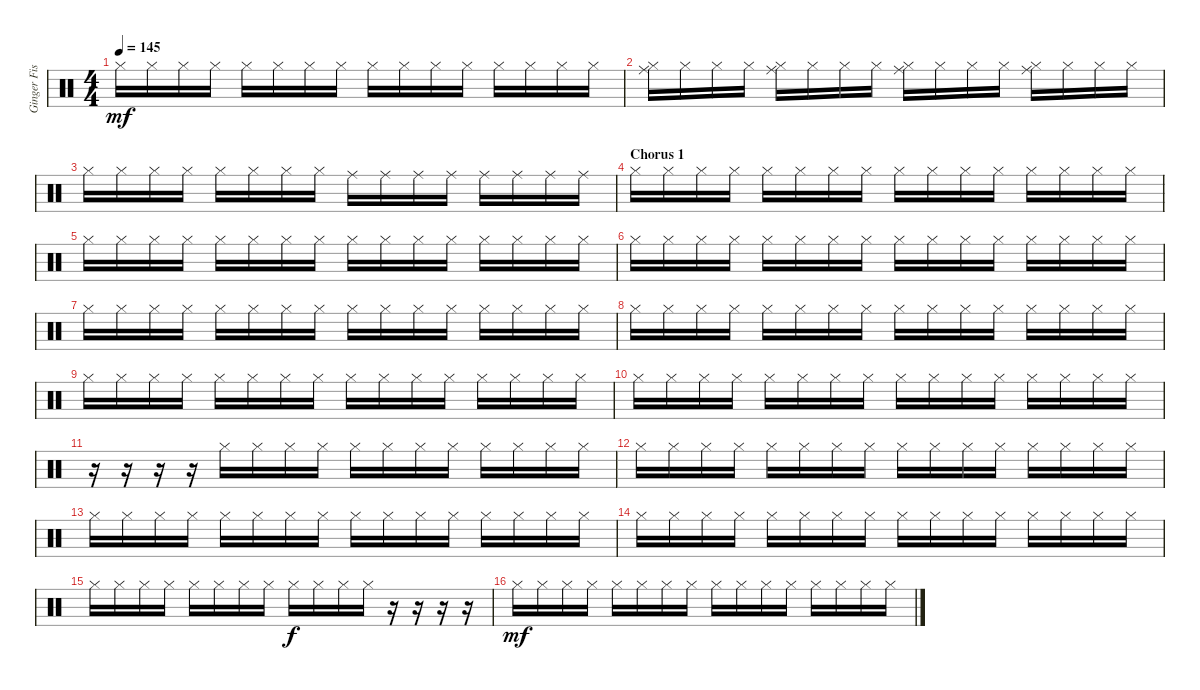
\track ("Ginger Fish [Aditional Drums]" "Ginger Fis") {instrument percussion}
\staff {score}
\articulation defaults
\ts (4 4)
\tempo 145
\clef neutral
\ks c "Hi-Hat (closed)".16{dy mf} "Hi-Hat (closed)".16 "Hi-Hat (closed)".16 "Hi-Hat (closed)".16 "Hi-Hat (closed)".16 "Hi-Hat (closed)".16 "Hi-Hat (closed)".16 "Hi-Hat (closed)".16 "Hi-Hat (closed)".16 "Hi-Hat (closed)".16 "Hi-Hat (closed)".16 "Hi-Hat (closed)".16 "Hi-Hat (closed)".16 "Hi-Hat (closed)".16 "Hi-Hat (closed)".16 "Hi-Hat (closed)".16
|
("Hi-Hat (closed)" "Ride (middle)").16 "Hi-Hat (closed)".16 "Hi-Hat (closed)".16 "Hi-Hat (closed)".16 ("Hi-Hat (closed)" "Ride (middle)").16 "Hi-Hat (closed)".16 "Hi-Hat (closed)".16 "Hi-Hat (closed)".16 ("Hi-Hat (closed)" "Ride (middle)").16 "Hi-Hat (closed)".16 "Hi-Hat (closed)".16 "Hi-Hat (closed)".16 ("Hi-Hat (closed)" "Ride (middle)").16 "Hi-Hat (closed)".16 "Hi-Hat (closed)".16 "Hi-Hat (closed)".16 |
"Hi-Hat (closed)".16 "Hi-Hat (closed)".16 "Hi-Hat (closed)".16 "Hi-Hat (closed)".16 "Hi-Hat (closed)".16 "Hi-Hat (closed)".16 "Hi-Hat (closed)".16 "Hi-Hat (closed)".16 "Ride (middle)".16 "Ride (middle)".16 "Ride (middle)".16 "Ride (middle)".16 "Ride (middle)".16 "Ride (middle)".16 "Ride (middle)".16 "Ride (middle)".16 |
\section ("" "Chorus 1")
"Hi-Hat (closed)".16 "Hi-Hat (closed)".16 "Hi-Hat (closed)".16 "Hi-Hat (closed)".16 "Hi-Hat (closed)".16 "Hi-Hat (closed)".16 "Hi-Hat (closed)".16 "Hi-Hat (closed)".16 "Hi-Hat (closed)".16 "Hi-Hat (closed)".16 "Hi-Hat (closed)".16 "Hi-Hat (closed)".16 "Hi-Hat (closed)".16 "Hi-Hat (closed)".16 "Hi-Hat (closed)".16 "Hi-Hat (closed)".16 |
"Hi-Hat (closed)".16 "Hi-Hat (closed)".16 "Hi-Hat (closed)".16 "Hi-Hat (closed)".16 "Hi-Hat (closed)".16 "Hi-Hat (closed)".16 "Hi-Hat (closed)".16 "Hi-Hat (closed)".16 "Hi-Hat (closed)".16 "Hi-Hat (closed)".16 "Hi-Hat (closed)".16 "Hi-Hat (closed)".16 "Hi-Hat (closed)".16 "Hi-Hat (closed)".16 "Hi-Hat (closed)".16 "Hi-Hat (closed)".16 |
"Hi-Hat (closed)".16 "Hi-Hat (closed)".16 "Hi-Hat (closed)".16 "Hi-Hat (closed)".16 "Hi-Hat (closed)".16 "Hi-Hat (closed)".16 "Hi-Hat (closed)".16 "Hi-Hat (closed)".16 "Hi-Hat (closed)".16 "Hi-Hat (closed)".16 "Hi-Hat (closed)".16 "Hi-Hat (closed)".16 "Hi-Hat (closed)".16 "Hi-Hat (closed)".16 "Hi-Hat (closed)".16 "Hi-Hat (closed)".16 |
"Hi-Hat (closed)".16 "Hi-Hat (closed)".16 "Hi-Hat (closed)".16 "Hi-Hat (closed)".16 "Hi-Hat (closed)".16 "Hi-Hat (closed)".16 "Hi-Hat (closed)".16 "Hi-Hat (closed)".16 "Hi-Hat (closed)".16 "Hi-Hat (closed)".16 "Hi-Hat (closed)".16 "Hi-Hat (closed)".16 "Hi-Hat (closed)".16 "Hi-Hat (closed)".16 "Hi-Hat (closed)".16 "Hi-Hat (closed)".16 |
"Hi-Hat (closed)".16 "Hi-Hat (closed)".16 "Hi-Hat (closed)".16 "Hi-Hat (closed)".16 "Hi-Hat (closed)".16 "Hi-Hat (closed)".16 "Hi-Hat (closed)".16 "Hi-Hat (closed)".16 "Hi-Hat (closed)".16 "Hi-Hat (closed)".16 "Hi-Hat (closed)".16 "Hi-Hat (closed)".16 "Hi-Hat (closed)".16 "Hi-Hat (closed)".16 "Hi-Hat (closed)".16 "Hi-Hat (closed)".16 |
"Hi-Hat (closed)".16 "Hi-Hat (closed)".16 "Hi-Hat (closed)".16 "Hi-Hat (closed)".16 "Hi-Hat (closed)".16 "Hi-Hat (closed)".16 "Hi-Hat (closed)".16 "Hi-Hat (closed)".16 "Hi-Hat (closed)".16 "Hi-Hat (closed)".16 "Hi-Hat (closed)".16 "Hi-Hat (closed)".16 "Hi-Hat (closed)".16 "Hi-Hat (closed)".16 "Hi-Hat (closed)".16 "Hi-Hat (closed)".16 |
"Hi-Hat (closed)".16 "Hi-Hat (closed)".16 "Hi-Hat (closed)".16 "Hi-Hat (closed)".16 "Hi-Hat (closed)".16 "Hi-Hat (closed)".16 "Hi-Hat (closed)".16 "Hi-Hat (closed)".16 "Hi-Hat (closed)".16 "Hi-Hat (closed)".16 "Hi-Hat (closed)".16 "Hi-Hat (closed)".16 "Hi-Hat (closed)".16 "Hi-Hat (closed)".16 "Hi-Hat (closed)".16 "Hi-Hat (closed)".16 |
r.16 r.16 r.16 r.16 "Hi-Hat (closed)".16 "Hi-Hat (closed)".16 "Hi-Hat (closed)".16 "Hi-Hat (closed)".16 "Hi-Hat (closed)".16 "Hi-Hat (closed)".16 "Hi-Hat (closed)".16 "Hi-Hat (closed)".16 "Hi-Hat (closed)".16 "Hi-Hat (closed)".16 "Hi-Hat (closed)".16 "Hi-Hat (closed)".16 |
"Hi-Hat (closed)".16 "Hi-Hat (closed)".16 "Hi-Hat (closed)".16 "Hi-Hat (closed)".16 "Hi-Hat (closed)".16 "Hi-Hat (closed)".16 "Hi-Hat (closed)".16 "Hi-Hat (closed)".16 "Hi-Hat (closed)".16 "Hi-Hat (closed)".16 "Hi-Hat (closed)".16 "Hi-Hat (closed)".16 "Hi-Hat (closed)".16 "Hi-Hat (closed)".16 "Hi-Hat (closed)".16 "Hi-Hat (closed)".16 |
"Hi-Hat (closed)".16 "Hi-Hat (closed)".16 "Hi-Hat (closed)".16 "Hi-Hat (closed)".16 "Hi-Hat (closed)".16 "Hi-Hat (closed)".16 "Hi-Hat (closed)".16 "Hi-Hat (closed)".16 "Hi-Hat (closed)".16 "Hi-Hat (closed)".16 "Hi-Hat (closed)".16 "Hi-Hat (closed)".16 "Hi-Hat (closed)".16 "Hi-Hat (closed)".16 "Hi-Hat (closed)".16 "Hi-Hat (closed)".16 |
"Hi-Hat (closed)".16 "Hi-Hat (closed)".16 "Hi-Hat (closed)".16 "Hi-Hat (closed)".16 "Hi-Hat (closed)".16 "Hi-Hat (closed)".16 "Hi-Hat (closed)".16 "Hi-Hat (closed)".16 "Hi-Hat (closed)".16 "Hi-Hat (closed)".16 "Hi-Hat (closed)".16 "Hi-Hat (closed)".16 "Hi-Hat (closed)".16 "Hi-Hat (closed)".16 "Hi-Hat (closed)".16 "Hi-Hat (closed)".16 |
"Hi-Hat (closed)".16 "Hi-Hat (closed)".16 "Hi-Hat (closed)".16 "Hi-Hat (closed)".16 "Hi-Hat (closed)".16 "Hi-Hat (closed)".16 "Hi-Hat (closed)".16 "Hi-Hat (closed)".16 "Hi-Hat (closed)".16{dy f} "Hi-Hat (closed)".16 "Hi-Hat (closed)".16 "Hi-Hat (closed)".16 r.16 r.16 r.16 r.16 |
"Hi-Hat (closed)".16{dy mf} "Hi-Hat (closed)".16 "Hi-Hat (closed)".16 "Hi-Hat (closed)".16 "Hi-Hat (closed)".16 "Hi-Hat (closed)".16 "Hi-Hat (closed)".16 "Hi-Hat (closed)".16 "Hi-Hat (closed)".16 "Hi-Hat (closed)".16 "Hi-Hat (closed)".16 "Hi-Hat (closed)".16 "Hi-Hat (closed)".16 "Hi-Hat (closed)".16 "Hi-Hat (closed)".16 "Hi-Hat (closed)".16
